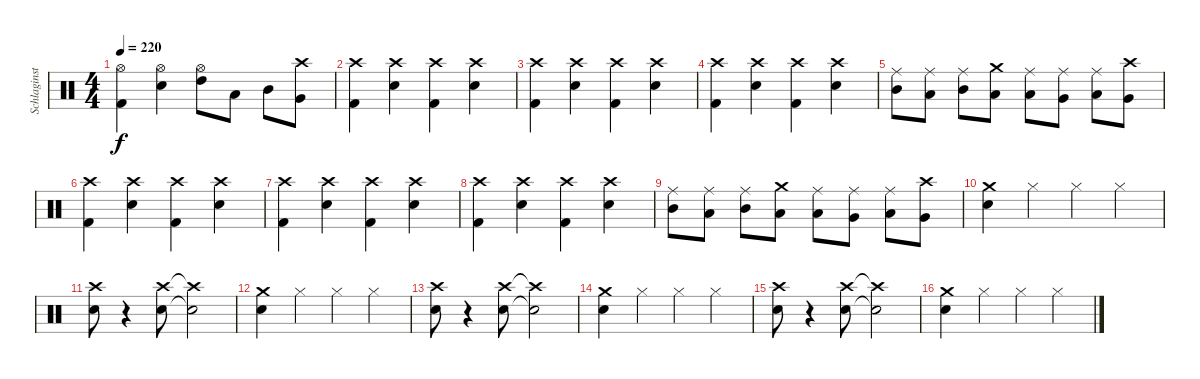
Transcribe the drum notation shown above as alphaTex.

\track ("Schlaginstrumente - Auswahl" "Schlaginst") {instrument percussion}
\staff {score}
\articulation defaults
\ts (4 4)
\tempo 220
\clef neutral
\ks c
("Hi-Hat (open)" "Kick (hit) 2").4{dy f} ("Hi-Hat (open)" "Snare (hit) 2").4 ("Hi-Hat (open)" "High Tom (hit)").8 "Low Tom (hit)".8 "Mid Tom (hit)".8 ("Crash high (hit)" "Very Low Tom (hit)").8 |
("Crash high (hit)" "Kick (hit) 2").4 ("Crash high (hit)" "Snare (hit) 2").4 ("Crash high (hit)" "Kick (hit) 2").4 ("Crash high (hit)" "Snare (hit) 2").4 |
("Crash high (hit)" "Kick (hit) 2").4 ("Crash high (hit)" "Snare (hit) 2").4 ("Crash high (hit)" "Kick (hit) 2").4 ("Crash high (hit)" "Snare (hit) 2").4 |
("Crash high (hit)" "Kick (hit) 2").4 ("Crash high (hit)" "Snare (hit) 2").4 ("Crash high (hit)" "Kick (hit) 2").4 ("Crash high (hit)" "Snare (hit) 2").4 |
("Ride (middle)" "Mid Tom (hit)").8 ("Ride (middle)" "Low Tom (hit)").8 ("Ride (middle)" "Mid Tom (hit)").8 ("Crash medium (hit)" "Low Tom (hit)").8 ("Ride (middle)" "Low Tom (hit)").8 ("Ride (middle)" "Very Low Tom (hit)").8 ("Ride (middle)" "Low Tom (hit)").8 ("Crash high (hit)" "Very Low Tom (hit)").8 |
("Crash high (hit)" "Kick (hit) 2").4 ("Crash high (hit)" "Snare (hit) 2").4 ("Crash high (hit)" "Kick (hit) 2").4 ("Crash high (hit)" "Snare (hit) 2").4 |
("Crash high (hit)" "Kick (hit) 2").4 ("Crash high (hit)" "Snare (hit) 2").4 ("Crash high (hit)" "Kick (hit) 2").4 ("Crash high (hit)" "Snare (hit) 2").4 |
("Crash high (hit)" "Kick (hit) 2").4 ("Crash high (hit)" "Snare (hit) 2").4 ("Crash high (hit)" "Kick (hit) 2").4 ("Crash high (hit)" "Snare (hit) 2").4 |
("Ride (middle)" "Mid Tom (hit)").8 ("Ride (middle)" "Low Tom (hit)").8 ("Ride (middle)" "Mid Tom (hit)").8 ("Crash medium (hit)" "Low Tom (hit)").8 ("Ride (middle)" "Low Tom (hit)").8 ("Ride (middle)" "Very Low Tom (hit)").8 ("Ride (middle)" "Low Tom (hit)").8 ("Crash high (hit)" "Very Low Tom (hit)").8 |
("Crash medium (hit)" "Snare (hit) 2").4 "Hi-Hat (closed)".4 "Hi-Hat (closed)".4 "Hi-Hat (closed)".4 |
("Crash high (hit)" "Snare (hit) 2").8 r.4 ("Crash high (hit)" "Snare (hit) 2").8 ("Crash high (hit)"{t} "Snare (hit) 2"{t}).2 |
("Crash medium (hit)" "Snare (hit) 2").4 "Hi-Hat (closed)".4 "Hi-Hat (closed)".4 "Hi-Hat (closed)".4 |
("Crash high (hit)" "Snare (hit) 2").8 r.4 ("Crash high (hit)" "Snare (hit) 2").8 ("Crash high (hit)"{t} "Snare (hit) 2"{t}).2 |
("Crash medium (hit)" "Snare (hit) 2").4 "Hi-Hat (closed)".4 "Hi-Hat (closed)".4 "Hi-Hat (closed)".4 |
("Crash high (hit)" "Snare (hit) 2").8 r.4 ("Crash high (hit)" "Snare (hit) 2").8 ("Crash high (hit)"{t} "Snare (hit) 2"{t}).2 |
("Crash medium (hit)" "Snare (hit) 2").4 "Hi-Hat (closed)".4 "Hi-Hat (closed)".4 "Hi-Hat (closed)".4
